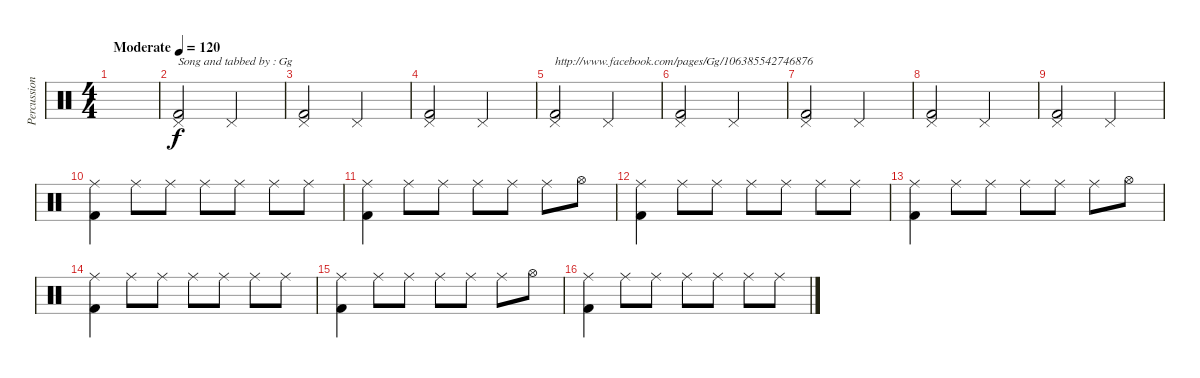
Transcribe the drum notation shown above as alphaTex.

\track ("Percussion" "Percussion") {instrument percussion}
\staff {score}
\articulation defaults
\ts (4 4)
\tempo (120 "Moderate")
\clef neutral
\ks c
|
("Kick (hit) 2" "Pedal Hi-Hat (hit)").2{txt "Song and tabbed by : Gg"} "Pedal Hi-Hat (hit)".2 |
("Kick (hit) 2" "Pedal Hi-Hat (hit)").2 "Pedal Hi-Hat (hit)".2 |
("Kick (hit) 2" "Pedal Hi-Hat (hit)").2 "Pedal Hi-Hat (hit)".2 |
("Kick (hit) 2" "Pedal Hi-Hat (hit)").2{txt "http://www.facebook.com/pages/Gg/106385542746876"} "Pedal Hi-Hat (hit)".2 |
("Kick (hit) 2" "Pedal Hi-Hat (hit)").2 "Pedal Hi-Hat (hit)".2 |
("Kick (hit) 2" "Pedal Hi-Hat (hit)").2 "Pedal Hi-Hat (hit)".2 |
("Kick (hit) 2" "Pedal Hi-Hat (hit)").2 "Pedal Hi-Hat (hit)".2 |
("Kick (hit) 2" "Pedal Hi-Hat (hit)").2 "Pedal Hi-Hat (hit)".2 |
("Kick (hit) 2" "Ride (middle)").4 "Ride (middle)".8 "Ride (middle)".8 "Ride (middle)".8 "Ride (middle)".8 "Ride (middle)".8 "Ride (middle)".8 |
("Kick (hit) 2" "Ride (middle)").4 "Ride (middle)".8 "Ride (middle)".8 "Ride (middle)".8 "Ride (middle)".8 "Ride (middle)".8 "Hi-Hat (open)".8 |
("Kick (hit) 2" "Ride (middle)").4 "Ride (middle)".8 "Ride (middle)".8 "Ride (middle)".8 "Ride (middle)".8 "Ride (middle)".8 "Ride (middle)".8 |
("Kick (hit) 2" "Ride (middle)").4 "Ride (middle)".8 "Ride (middle)".8 "Ride (middle)".8 "Ride (middle)".8 "Ride (middle)".8 "Hi-Hat (open)".8 |
("Kick (hit) 2" "Ride (middle)").4 "Ride (middle)".8 "Ride (middle)".8 "Ride (middle)".8 "Ride (middle)".8 "Ride (middle)".8 "Ride (middle)".8 |
("Kick (hit) 2" "Ride (middle)").4 "Ride (middle)".8 "Ride (middle)".8 "Ride (middle)".8 "Ride (middle)".8 "Ride (middle)".8 "Hi-Hat (open)".8 |
("Kick (hit) 2" "Ride (middle)").4 "Ride (middle)".8 "Ride (middle)".8 "Ride (middle)".8 "Ride (middle)".8 "Ride (middle)".8 "Ride (middle)".8
